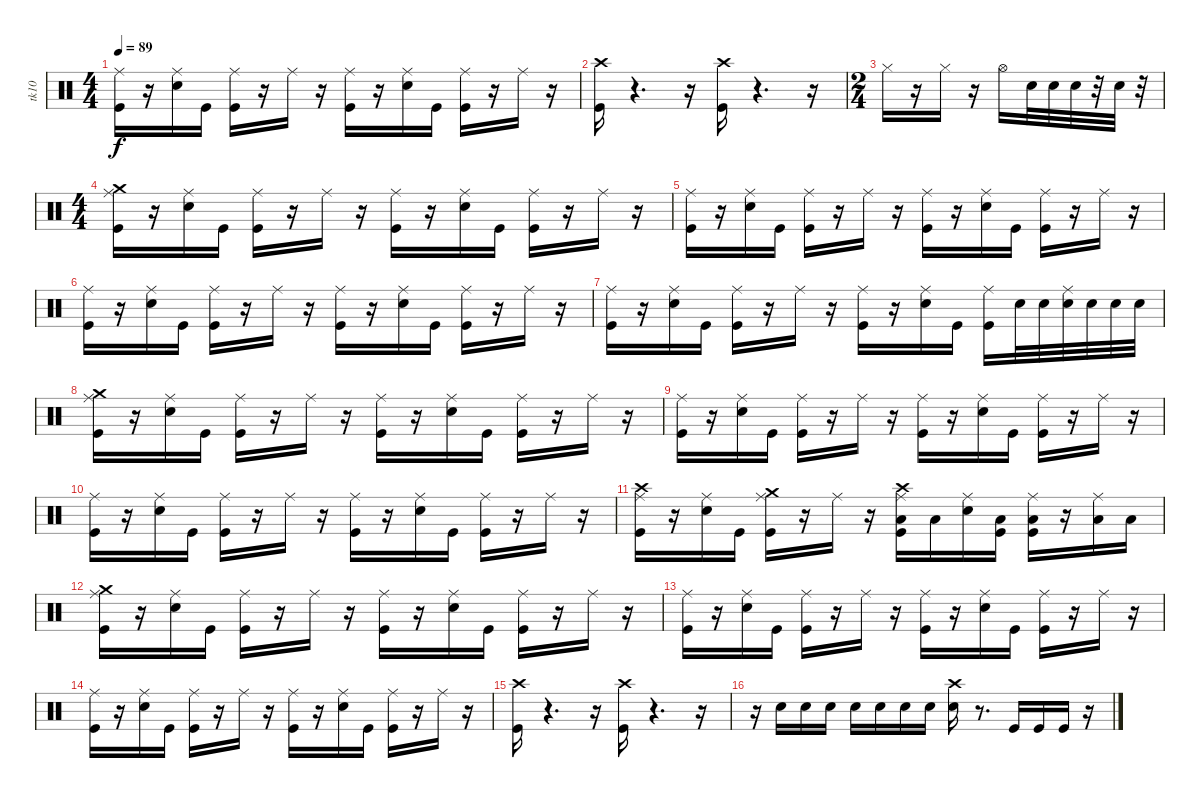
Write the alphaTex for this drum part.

\track ("tk10" "tk10") {instrument percussion}
\staff {score}
\articulation defaults
\ts (4 4)
\tempo 89
\clef neutral
\ks c
("Ride (middle)" "Kick (hit)").16{dy f} r.16 ("Snare (hit) 2" "Ride (middle)").16 "Kick (hit)".16 ("Ride (middle)" "Kick (hit)").16 r.16 "Ride (middle)".16 r.16 ("Ride (middle)" "Kick (hit)").16 r.16 ("Snare (hit) 2" "Ride (middle)").16 "Kick (hit)".16 ("Ride (middle)" "Kick (hit)").16 r.16 "Ride (middle)".16 r.16 |
("Kick (hit)" "Crash high (hit)").16 r.4{d} r.16 ("Kick (hit)" "Crash high (hit)").16 r.4{d} r.16 |
\ts (2 4)
"Hi-Hat (closed)".16 r.16 "Hi-Hat (closed)".16 r.16 "Hi-Hat (open)".16 "Electric Snare (hit)".32 "Electric Snare (hit)".32 "Electric Snare (hit)".32 r.32 "Electric Snare (hit)".32 r.32 |
\ts (4 4)
("Ride (middle)" "Crash medium (hit)" "Kick (hit)").16 r.16 ("Snare (hit) 2" "Ride (middle)").16 "Kick (hit)".16 ("Ride (middle)" "Kick (hit)").16 r.16 "Ride (middle)".16 r.16 ("Ride (middle)" "Kick (hit)").16 r.16 ("Snare (hit) 2" "Ride (middle)").16 "Kick (hit)".16 ("Ride (middle)" "Kick (hit)").16 r.16 "Ride (middle)".16 r.16 |
("Ride (middle)" "Kick (hit)").16 r.16 ("Snare (hit) 2" "Ride (middle)").16 "Kick (hit)".16 ("Ride (middle)" "Kick (hit)").16 r.16 "Ride (middle)".16 r.16 ("Ride (middle)" "Kick (hit)").16 r.16 ("Snare (hit) 2" "Ride (middle)").16 "Kick (hit)".16 ("Ride (middle)" "Kick (hit)").16 r.16 "Ride (middle)".16 r.16 |
("Ride (middle)" "Kick (hit)").16 r.16 ("Snare (hit) 2" "Ride (middle)").16 "Kick (hit)".16 ("Ride (middle)" "Kick (hit)").16 r.16 "Ride (middle)".16 r.16 ("Ride (middle)" "Kick (hit)").16 r.16 ("Snare (hit) 2" "Ride (middle)").16 "Kick (hit)".16 ("Ride (middle)" "Kick (hit)").16 r.16 "Ride (middle)".16 r.16 |
("Ride (middle)" "Kick (hit)").16 r.16 ("Snare (hit) 2" "Ride (middle)").16 "Kick (hit)".16 ("Ride (middle)" "Kick (hit)").16 r.16 "Ride (middle)".16 r.16 ("Ride (middle)" "Kick (hit)").16 r.16 ("Snare (hit) 2" "Ride (middle)").16 "Kick (hit)".16 ("Ride (middle)" "Kick (hit)").16 "Electric Snare (hit)".32 "Electric Snare (hit)".32 ("Electric Snare (hit)" "Ride (middle)").32 "Electric Snare (hit)".32 "Electric Snare (hit)".32 "Electric Snare (hit)".32 |
("Ride (middle)" "Crash medium (hit)" "Kick (hit)").16 r.16 ("Snare (hit) 2" "Ride (middle)").16 "Kick (hit)".16 ("Ride (middle)" "Kick (hit)").16 r.16 "Ride (middle)".16 r.16 ("Ride (middle)" "Kick (hit)").16 r.16 ("Snare (hit) 2" "Ride (middle)").16 "Kick (hit)".16 ("Ride (middle)" "Kick (hit)").16 r.16 "Ride (middle)".16 r.16 |
("Ride (middle)" "Kick (hit)").16 r.16 ("Snare (hit) 2" "Ride (middle)").16 "Kick (hit)".16 ("Ride (middle)" "Kick (hit)").16 r.16 "Ride (middle)".16 r.16 ("Ride (middle)" "Kick (hit)").16 r.16 ("Snare (hit) 2" "Ride (middle)").16 "Kick (hit)".16 ("Ride (middle)" "Kick (hit)").16 r.16 "Ride (middle)".16 r.16 |
("Ride (middle)" "Kick (hit)").16 r.16 ("Snare (hit) 2" "Ride (middle)").16 "Kick (hit)".16 ("Ride (middle)" "Kick (hit)").16 r.16 "Ride (middle)".16 r.16 ("Ride (middle)" "Kick (hit)").16 r.16 ("Snare (hit) 2" "Ride (middle)").16 "Kick (hit)".16 ("Ride (middle)" "Kick (hit)").16 r.16 "Ride (middle)".16 r.16 |
("Crash high (hit)" "Ride (middle)" "Kick (hit)").16 r.16 ("Snare (hit) 2" "Ride (middle)").16 "Kick (hit)".16 ("Crash medium (hit)" "Ride (middle)" "Kick (hit)").16 r.16 "Ride (middle)".16 r.16 ("Crash high (hit)" "Low Tom (hit)" "Ride (middle)" "Kick (hit)").16 "Low Tom (hit)".16 ("Snare (hit) 2" "Ride (middle)").16 ("Low Tom (hit)" "Kick (hit)").16 ("Low Tom (hit)" "Ride (middle)" "Kick (hit)").16 r.16 ("Low Floor Tom (hit)" "Ride (middle)").16 "Low Floor Tom (hit)".16 |
("Ride (middle)" "Crash medium (hit)" "Kick (hit)").16 r.16 ("Snare (hit) 2" "Ride (middle)").16 "Kick (hit)".16 ("Ride (middle)" "Kick (hit)").16 r.16 "Ride (middle)".16 r.16 ("Ride (middle)" "Kick (hit)").16 r.16 ("Snare (hit) 2" "Ride (middle)").16 "Kick (hit)".16 ("Ride (middle)" "Kick (hit)").16 r.16 "Ride (middle)".16 r.16 |
("Ride (middle)" "Kick (hit)").16 r.16 ("Snare (hit) 2" "Ride (middle)").16 "Kick (hit)".16 ("Ride (middle)" "Kick (hit)").16 r.16 "Ride (middle)".16 r.16 ("Ride (middle)" "Kick (hit)").16 r.16 ("Snare (hit) 2" "Ride (middle)").16 "Kick (hit)".16 ("Ride (middle)" "Kick (hit)").16 r.16 "Ride (middle)".16 r.16 |
("Ride (middle)" "Kick (hit)").16 r.16 ("Snare (hit) 2" "Ride (middle)").16 "Kick (hit)".16 ("Ride (middle)" "Kick (hit)").16 r.16 "Ride (middle)".16 r.16 ("Ride (middle)" "Kick (hit)").16 r.16 ("Snare (hit) 2" "Ride (middle)").16 "Kick (hit)".16 ("Ride (middle)" "Kick (hit)").16 r.16 "Ride (middle)".16 r.16 |
("Kick (hit)" "Crash high (hit)").16 r.4{d} r.16 ("Kick (hit)" "Crash high (hit)").16 r.4{d} r.16 |
r.16 "Electric Snare (hit)".16 "Electric Snare (hit)".16 "Electric Snare (hit)".16 "Electric Snare (hit)".16 "Electric Snare (hit)".16 "Electric Snare (hit)".16 "Electric Snare (hit)".16 ("Crash high (hit)" "Electric Snare (hit)").16 r.8{d} "Kick (hit)".16 "Kick (hit)".16 "Kick (hit)".16 r.16
